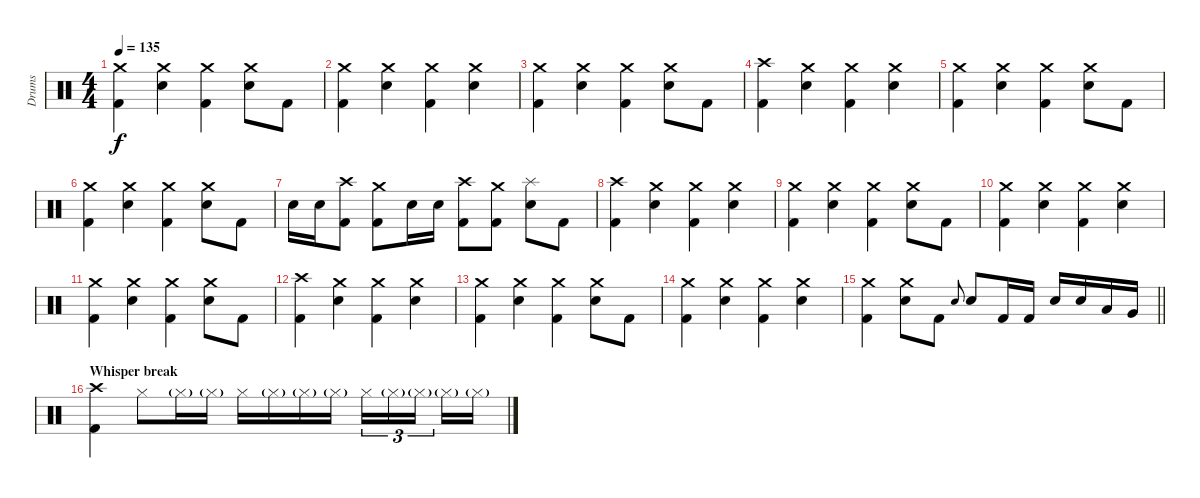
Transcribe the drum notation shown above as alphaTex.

\track ("Drums" "Drums") {instrument percussion}
\staff {score}
\articulation defaults
\ts (4 4)
\tempo 135
\clef neutral
\ks c
("Crash medium (hit)" "Kick (hit) 2").4{dy f} ("Crash medium (hit)" "Electric Snare (hit)").4 ("Crash medium (hit)" "Kick (hit) 2").4 ("Crash medium (hit)" "Electric Snare (hit)").8 "Kick (hit) 2".8 |
("Crash medium (hit)" "Kick (hit) 2").4 ("Crash medium (hit)" "Electric Snare (hit)").4 ("Crash medium (hit)" "Kick (hit) 2").4 ("Crash medium (hit)" "Electric Snare (hit)").4 |
("Crash medium (hit)" "Kick (hit) 2").4 ("Crash medium (hit)" "Electric Snare (hit)").4 ("Crash medium (hit)" "Kick (hit) 2").4 ("Crash medium (hit)" "Electric Snare (hit)").8 "Kick (hit) 2".8 |
("Crash high (hit)" "Kick (hit) 2").4 ("Crash medium (hit)" "Electric Snare (hit)").4 ("Crash medium (hit)" "Kick (hit) 2").4 ("Crash medium (hit)" "Electric Snare (hit)").4 |
("Crash medium (hit)" "Kick (hit) 2").4 ("Crash medium (hit)" "Electric Snare (hit)").4 ("Crash medium (hit)" "Kick (hit) 2").4 ("Crash medium (hit)" "Electric Snare (hit)").8 "Kick (hit) 2".8 |
("Crash medium (hit)" "Kick (hit) 2").4 ("Crash medium (hit)" "Electric Snare (hit)").4 ("Crash medium (hit)" "Kick (hit) 2").4 ("Crash medium (hit)" "Electric Snare (hit)").8 "Kick (hit) 2".8 |
"Electric Snare (hit)".16 "Electric Snare (hit)".16 ("Crash high (hit)" "Kick (hit) 2").8 ("Crash medium (hit)" "Kick (hit) 2").8 "Electric Snare (hit)".16 "Electric Snare (hit)".16 ("Crash high (hit)" "Kick (hit) 2").8 ("Crash medium (hit)" "Kick (hit) 2").8 ("Splash (hit)" "Electric Snare (hit)").8 "Kick (hit) 2".8 |
("Crash high (hit)" "Kick (hit) 2").4 ("Crash medium (hit)" "Electric Snare (hit)").4 ("Crash medium (hit)" "Kick (hit) 2").4 ("Crash medium (hit)" "Electric Snare (hit)").4 |
("Crash medium (hit)" "Kick (hit) 2").4 ("Crash medium (hit)" "Electric Snare (hit)").4 ("Crash medium (hit)" "Kick (hit) 2").4 ("Crash medium (hit)" "Electric Snare (hit)").8 "Kick (hit) 2".8 |
("Crash medium (hit)" "Kick (hit) 2").4 ("Crash medium (hit)" "Electric Snare (hit)").4 ("Crash medium (hit)" "Kick (hit) 2").4 ("Crash medium (hit)" "Electric Snare (hit)").4 |
("Crash medium (hit)" "Kick (hit) 2").4 ("Crash medium (hit)" "Electric Snare (hit)").4 ("Crash medium (hit)" "Kick (hit) 2").4 ("Crash medium (hit)" "Electric Snare (hit)").8 "Kick (hit) 2".8 |
("Crash high (hit)" "Kick (hit) 2").4 ("Crash medium (hit)" "Electric Snare (hit)").4 ("Crash medium (hit)" "Kick (hit) 2").4 ("Crash medium (hit)" "Electric Snare (hit)").4 |
("Crash medium (hit)" "Kick (hit) 2").4 ("Crash medium (hit)" "Electric Snare (hit)").4 ("Crash medium (hit)" "Kick (hit) 2").4 ("Crash medium (hit)" "Electric Snare (hit)").8 "Kick (hit) 2".8 |
("Crash medium (hit)" "Kick (hit) 2").4 ("Crash medium (hit)" "Electric Snare (hit)").4 ("Crash medium (hit)" "Kick (hit) 2").4 ("Crash medium (hit)" "Electric Snare (hit)").4 |
\barLineRight lightlight
("Crash medium (hit)" "Kick (hit) 2").4 ("Crash medium (hit)" "Electric Snare (hit)").8 "Kick (hit) 2".8 "Electric Snare (hit)".8{gr onbeat} "Electric Snare (hit)".8 "Kick (hit) 2".16 "Kick (hit) 2".16 "Electric Snare (hit)".16 "Electric Snare (hit)".16 "Low Tom (hit)".16 "Very Low Tom (hit)".16 |
\section ("" "Whisper break")
("Crash high (hit)" "Kick (hit) 2").4 "Hi-Hat (closed)".8 "Hi-Hat (closed)"{g}.16 "Hi-Hat (closed)"{g}.16 "Hi-Hat (closed)".16 "Hi-Hat (closed)"{g}.16 "Hi-Hat (closed)"{g}.16 "Hi-Hat (closed)"{g}.16 "Hi-Hat (closed)".16{tu (3 2)} "Hi-Hat (closed)"{g}.16{tu (3 2)} "Hi-Hat (closed)"{g}.16{tu (3 2) beam splitsecondary} "Hi-Hat (closed)"{g}.16 "Hi-Hat (closed)"{g}.16
